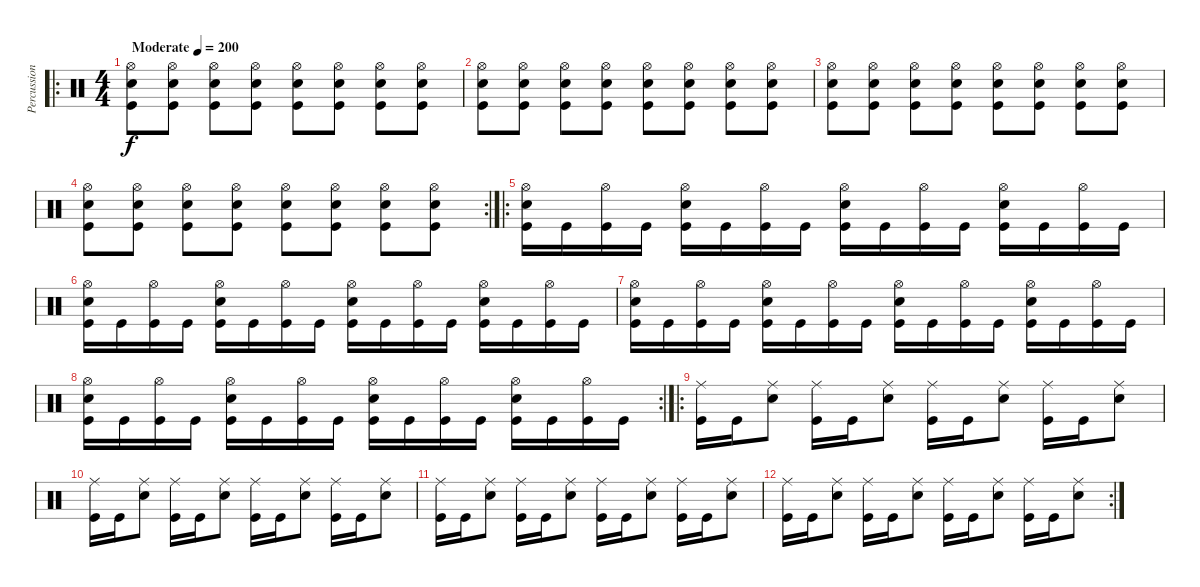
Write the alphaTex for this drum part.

\track ("Percussion" "Percussion") {instrument percussion}
\staff {score}
\articulation defaults
\ro
\ts (4 4)
\tempo (200 "Moderate")
\clef neutral
\ks c
("Hi-Hat (open)" "Snare (hit) 2" "Kick (hit)").8{dy f} ("Hi-Hat (open)" "Snare (hit) 2" "Kick (hit)").8 ("Hi-Hat (open)" "Snare (hit) 2" "Kick (hit)").8 ("Hi-Hat (open)" "Snare (hit) 2" "Kick (hit)").8 ("Hi-Hat (open)" "Snare (hit) 2" "Kick (hit)").8 ("Hi-Hat (open)" "Snare (hit) 2" "Kick (hit)").8 ("Hi-Hat (open)" "Snare (hit) 2" "Kick (hit)").8 ("Hi-Hat (open)" "Snare (hit) 2" "Kick (hit)").8 |
("Hi-Hat (open)" "Snare (hit) 2" "Kick (hit)").8 ("Hi-Hat (open)" "Snare (hit) 2" "Kick (hit)").8 ("Hi-Hat (open)" "Snare (hit) 2" "Kick (hit)").8 ("Hi-Hat (open)" "Snare (hit) 2" "Kick (hit)").8 ("Hi-Hat (open)" "Snare (hit) 2" "Kick (hit)").8 ("Hi-Hat (open)" "Snare (hit) 2" "Kick (hit)").8 ("Hi-Hat (open)" "Snare (hit) 2" "Kick (hit)").8 ("Hi-Hat (open)" "Snare (hit) 2" "Kick (hit)").8 |
("Hi-Hat (open)" "Snare (hit) 2" "Kick (hit)").8 ("Hi-Hat (open)" "Snare (hit) 2" "Kick (hit)").8 ("Hi-Hat (open)" "Snare (hit) 2" "Kick (hit)").8 ("Hi-Hat (open)" "Snare (hit) 2" "Kick (hit)").8 ("Hi-Hat (open)" "Snare (hit) 2" "Kick (hit)").8 ("Hi-Hat (open)" "Snare (hit) 2" "Kick (hit)").8 ("Hi-Hat (open)" "Snare (hit) 2" "Kick (hit)").8 ("Hi-Hat (open)" "Snare (hit) 2" "Kick (hit)").8 |
\rc 2
("Hi-Hat (open)" "Snare (hit) 2" "Kick (hit)").8 ("Hi-Hat (open)" "Snare (hit) 2" "Kick (hit)").8 ("Hi-Hat (open)" "Snare (hit) 2" "Kick (hit)").8 ("Hi-Hat (open)" "Snare (hit) 2" "Kick (hit)").8 ("Hi-Hat (open)" "Snare (hit) 2" "Kick (hit)").8 ("Hi-Hat (open)" "Snare (hit) 2" "Kick (hit)").8 ("Hi-Hat (open)" "Snare (hit) 2" "Kick (hit)").8 ("Hi-Hat (open)" "Snare (hit) 2" "Kick (hit)").8 |
\ro
("Hi-Hat (open)" "Snare (hit) 2" "Kick (hit)").16 "Kick (hit)".16 ("Hi-Hat (open)" "Kick (hit)").16 "Kick (hit)".16 ("Hi-Hat (open)" "Snare (hit) 2" "Kick (hit)").16 "Kick (hit)".16 ("Hi-Hat (open)" "Kick (hit)").16 "Kick (hit)".16 ("Hi-Hat (open)" "Snare (hit) 2" "Kick (hit)").16 "Kick (hit)".16 ("Hi-Hat (open)" "Kick (hit)").16 "Kick (hit)".16 ("Hi-Hat (open)" "Snare (hit) 2" "Kick (hit)").16 "Kick (hit)".16 ("Hi-Hat (open)" "Kick (hit)").16 "Kick (hit)".16 |
("Hi-Hat (open)" "Snare (hit) 2" "Kick (hit)").16 "Kick (hit)".16 ("Hi-Hat (open)" "Kick (hit)").16 "Kick (hit)".16 ("Hi-Hat (open)" "Snare (hit) 2" "Kick (hit)").16 "Kick (hit)".16 ("Hi-Hat (open)" "Kick (hit)").16 "Kick (hit)".16 ("Hi-Hat (open)" "Snare (hit) 2" "Kick (hit)").16 "Kick (hit)".16 ("Hi-Hat (open)" "Kick (hit)").16 "Kick (hit)".16 ("Hi-Hat (open)" "Snare (hit) 2" "Kick (hit)").16 "Kick (hit)".16 ("Hi-Hat (open)" "Kick (hit)").16 "Kick (hit)".16 |
("Hi-Hat (open)" "Snare (hit) 2" "Kick (hit)").16 "Kick (hit)".16 ("Hi-Hat (open)" "Kick (hit)").16 "Kick (hit)".16 ("Hi-Hat (open)" "Snare (hit) 2" "Kick (hit)").16 "Kick (hit)".16 ("Hi-Hat (open)" "Kick (hit)").16 "Kick (hit)".16 ("Hi-Hat (open)" "Snare (hit) 2" "Kick (hit)").16 "Kick (hit)".16 ("Hi-Hat (open)" "Kick (hit)").16 "Kick (hit)".16 ("Hi-Hat (open)" "Snare (hit) 2" "Kick (hit)").16 "Kick (hit)".16 ("Hi-Hat (open)" "Kick (hit)").16 "Kick (hit)".16 |
\rc 2
("Hi-Hat (open)" "Snare (hit) 2" "Kick (hit)").16 "Kick (hit)".16 ("Hi-Hat (open)" "Kick (hit)").16 "Kick (hit)".16 ("Hi-Hat (open)" "Snare (hit) 2" "Kick (hit)").16 "Kick (hit)".16 ("Hi-Hat (open)" "Kick (hit)").16 "Kick (hit)".16 ("Hi-Hat (open)" "Snare (hit) 2" "Kick (hit)").16 "Kick (hit)".16 ("Hi-Hat (open)" "Kick (hit)").16 "Kick (hit)".16 ("Hi-Hat (open)" "Snare (hit) 2" "Kick (hit)").16 "Kick (hit)".16 ("Hi-Hat (open)" "Kick (hit)").16 "Kick (hit)".16 |
\ro
("Ride (middle)" "Kick (hit)").16 "Kick (hit)".16 ("Ride (middle)" "Snare (hit) 2").8 ("Ride (middle)" "Kick (hit)").16 "Kick (hit)".16 ("Ride (middle)" "Snare (hit) 2").8 ("Ride (middle)" "Kick (hit)").16 "Kick (hit)".16 ("Ride (middle)" "Snare (hit) 2").8 ("Ride (middle)" "Kick (hit)").16 "Kick (hit)".16 ("Ride (middle)" "Snare (hit) 2").8 |
("Ride (middle)" "Kick (hit)").16 "Kick (hit)".16 ("Ride (middle)" "Snare (hit) 2").8 ("Ride (middle)" "Kick (hit)").16 "Kick (hit)".16 ("Ride (middle)" "Snare (hit) 2").8 ("Ride (middle)" "Kick (hit)").16 "Kick (hit)".16 ("Ride (middle)" "Snare (hit) 2").8 ("Ride (middle)" "Kick (hit)").16 "Kick (hit)".16 ("Ride (middle)" "Snare (hit) 2").8 |
("Ride (middle)" "Kick (hit)").16 "Kick (hit)".16 ("Ride (middle)" "Snare (hit) 2").8 ("Ride (middle)" "Kick (hit)").16 "Kick (hit)".16 ("Ride (middle)" "Snare (hit) 2").8 ("Ride (middle)" "Kick (hit)").16 "Kick (hit)".16 ("Ride (middle)" "Snare (hit) 2").8 ("Ride (middle)" "Kick (hit)").16 "Kick (hit)".16 ("Ride (middle)" "Snare (hit) 2").8 |
\rc 2
("Ride (middle)" "Kick (hit)").16 "Kick (hit)".16 ("Ride (middle)" "Snare (hit) 2").8 ("Ride (middle)" "Kick (hit)").16 "Kick (hit)".16 ("Ride (middle)" "Snare (hit) 2").8 ("Ride (middle)" "Kick (hit)").16 "Kick (hit)".16 ("Ride (middle)" "Snare (hit) 2").8 ("Ride (middle)" "Kick (hit)").16 "Kick (hit)".16 ("Ride (middle)" "Snare (hit) 2").8
